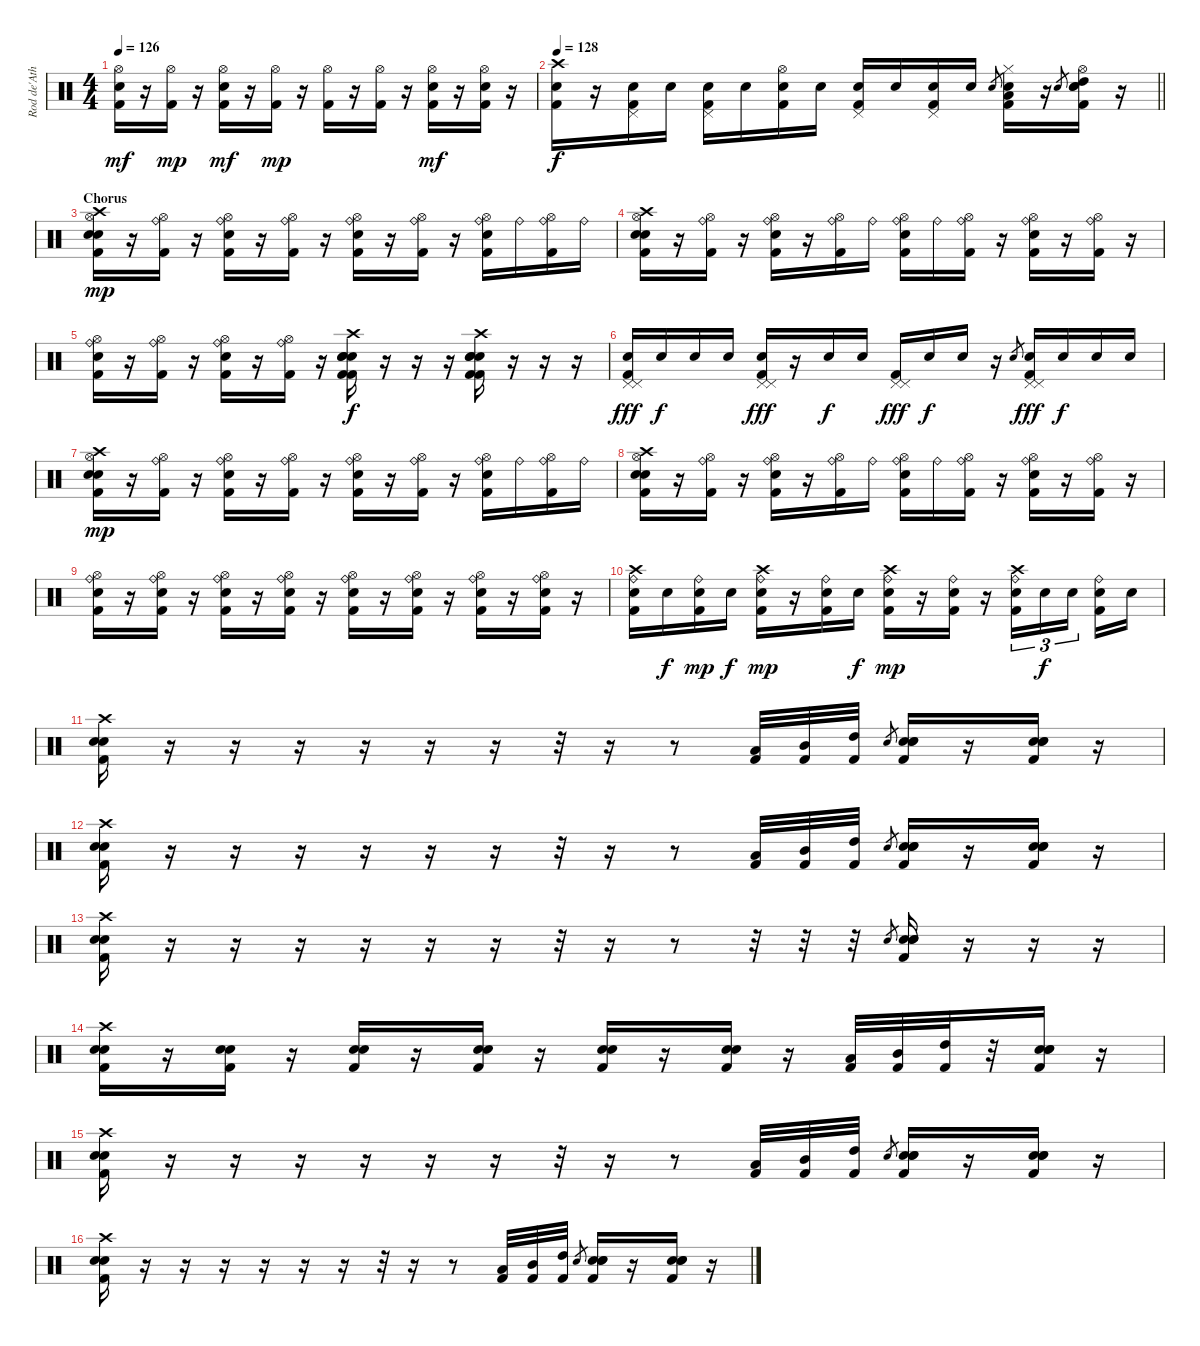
\track ("Rod de'Ath" "Rod de'Ath") {instrument percussion}
\staff {score}
\articulation defaults
\ts (4 4)
\tempo 126
\clef neutral
\ks c
("Hi-Hat (open)" "Snare (hit) 2" "Kick (hit) 2").16{dy mf} r.16 ("Hi-Hat (open)" "Kick (hit) 2").16{dy mp} r.16 ("Hi-Hat (open)" "Snare (hit) 2" "Kick (hit) 2").16{dy mf} r.16 ("Hi-Hat (open)" "Kick (hit) 2").16{dy mp} r.16 ("Hi-Hat (open)" "Kick (hit) 2").16 r.16 ("Hi-Hat (open)" "Kick (hit) 2").16 r.16 ("Hi-Hat (open)" "Snare (hit) 2" "Kick (hit) 2").16{dy mf} r.16 ("Hi-Hat (open)" "Electric Snare (hit)" "Kick (hit) 2").16 r.16 |
\tempo 128
\barLineRight lightlight
("Crash high (hit)" "Electric Snare (hit)" "Kick (hit) 2").16{dy f} r.16 ("Pedal Hi-Hat (hit)" "Electric Snare (hit)" "Kick (hit) 2").16 "Electric Snare (hit)".16 ("Pedal Hi-Hat (hit)" "Electric Snare (hit)" "Kick (hit) 2").16 "Electric Snare (hit)".16 ("Hi-Hat (open)" "Electric Snare (hit)" "Kick (hit) 2").16 "Electric Snare (hit)".16 ("Pedal Hi-Hat (hit)" "Snare (hit) 2" "Kick (hit) 2").16 "Snare (hit) 2".16 ("Pedal Hi-Hat (hit)" "Snare (hit) 2" "Kick (hit) 2").16 "Electric Snare (hit)".16 "Snare (hit) 2".8{gr} ("Hi-Hat (closed)" "Snare (hit) 2" "Low Tom (hit)" "Kick (hit) 2").16 r.16 "Electric Snare (hit)".8{gr} ("Hi-Hat (open)" "Snare (hit) 2" "Electric Snare (hit)" "High Tom (hit)" "Kick (hit) 2").16 r.16 |
\section ("" "Chorus")
("Crash high (hit)" "Hi-Hat (open)" "Snare (hit) 2" "Electric Snare (hit)" "Kick (hit) 2").16{dy mp} r.16 ("Ride (bell)" "Hi-Hat (open)" "Kick (hit) 2").16 r.16 ("Ride (bell)" "Hi-Hat (open)" "Snare (hit) 2" "Kick (hit) 2").16 r.16 ("Ride (bell)" "Hi-Hat (open)" "Kick (hit) 2").16 r.16 ("Ride (bell)" "Hi-Hat (open)" "Snare (hit) 2" "Kick (hit) 2").16 r.16 ("Ride (bell)" "Hi-Hat (open)" "Kick (hit) 2").16 r.16 ("Ride (bell)" "Hi-Hat (open)" "Snare (hit) 2" "Kick (hit) 2").16 "Ride (bell)".16 ("Ride (bell)" "Hi-Hat (open)" "Kick (hit) 2").16 "Ride (bell)".16 |
("Crash high (hit)" "Hi-Hat (open)" "Snare (hit) 2" "Electric Snare (hit)" "Kick (hit) 2").16 r.16 ("Ride (bell)" "Hi-Hat (open)" "Kick (hit) 2").16 r.16 ("Ride (bell)" "Hi-Hat (open)" "Snare (hit) 2" "Kick (hit) 2").16 r.16 ("Ride (bell)" "Hi-Hat (open)" "Kick (hit) 2").16 "Ride (bell)".16 ("Ride (bell)" "Hi-Hat (open)" "Snare (hit) 2" "Kick (hit) 2").16 "Ride (bell)".16 ("Ride (bell)" "Hi-Hat (open)" "Kick (hit) 2").16 r.16 ("Ride (bell)" "Hi-Hat (open)" "Snare (hit) 2" "Kick (hit) 2").16 r.16 ("Ride (bell)" "Hi-Hat (open)" "Kick (hit) 2").16 r.16 |
("Ride (bell)" "Hi-Hat (open)" "Snare (hit) 2" "Kick (hit) 2").16 r.16 ("Ride (bell)" "Hi-Hat (open)" "Kick (hit) 2").16 r.16 ("Ride (bell)" "Hi-Hat (open)" "Snare (hit) 2" "Kick (hit) 2").16 r.16 ("Ride (bell)" "Hi-Hat (open)" "Kick (hit) 2").16 r.16 ("Crash high (hit)" "Electric Snare (hit)" "Electric Snare (hit)" "Electric Snare (hit)" "Kick (hit) 2" "Kick (hit) 2").16{dy f} r.16 r.16 r.16 ("Crash high (hit)" "Electric Snare (hit)" "Electric Snare (hit)" "Snare (hit) 2" "Kick (hit) 2" "Kick (hit) 2").16 r.16 r.16 r.16 |
("Pedal Hi-Hat (hit)" "Snare (hit) 2" "Pedal Hi-Hat (hit)" "Kick (hit) 2").16{dy fff} "Snare (hit) 2".16{dy f} "Snare (hit) 2".16 "Snare (hit) 2".16 ("Pedal Hi-Hat (hit)" "Snare (hit) 2" "Pedal Hi-Hat (hit)" "Kick (hit) 2").16{dy fff} r.16 "Snare (hit) 2".16{dy f} "Snare (hit) 2".16 ("Pedal Hi-Hat (hit)" "Pedal Hi-Hat (hit)" "Kick (hit) 2").16{dy fff} "Snare (hit) 2".16{dy f} "Snare (hit) 2".16 r.16 "Electric Snare (hit)".8{gr} ("Pedal Hi-Hat (hit)" "Snare (hit) 2" "Pedal Hi-Hat (hit)" "Kick (hit) 2").16{dy fff} "Snare (hit) 2".16{dy f} "Snare (hit) 2".16 "Snare (hit) 2".16 |
("Crash high (hit)" "Hi-Hat (open)" "Snare (hit) 2" "Electric Snare (hit)" "Kick (hit) 2").16{dy mp} r.16 ("Ride (bell)" "Hi-Hat (open)" "Kick (hit) 2").16 r.16 ("Ride (bell)" "Hi-Hat (open)" "Snare (hit) 2" "Kick (hit) 2").16 r.16 ("Ride (bell)" "Hi-Hat (open)" "Kick (hit) 2").16 r.16 ("Ride (bell)" "Hi-Hat (open)" "Snare (hit) 2" "Kick (hit) 2").16 r.16 ("Ride (bell)" "Hi-Hat (open)" "Kick (hit) 2").16 r.16 ("Ride (bell)" "Hi-Hat (open)" "Snare (hit) 2" "Kick (hit) 2").16 "Ride (bell)".16 ("Ride (bell)" "Hi-Hat (open)" "Kick (hit) 2").16 "Ride (bell)".16 |
("Crash high (hit)" "Hi-Hat (open)" "Snare (hit) 2" "Electric Snare (hit)" "Kick (hit) 2").16 r.16 ("Ride (bell)" "Hi-Hat (open)" "Kick (hit) 2").16 r.16 ("Ride (bell)" "Hi-Hat (open)" "Snare (hit) 2" "Kick (hit) 2").16 r.16 ("Ride (bell)" "Hi-Hat (open)" "Kick (hit) 2").16 "Ride (bell)".16 ("Ride (bell)" "Hi-Hat (open)" "Snare (hit) 2" "Kick (hit) 2").16 "Ride (bell)".16 ("Ride (bell)" "Hi-Hat (open)" "Kick (hit) 2").16 r.16 ("Ride (bell)" "Hi-Hat (open)" "Snare (hit) 2" "Kick (hit) 2").16 r.16 ("Ride (bell)" "Hi-Hat (open)" "Kick (hit) 2").16 r.16 |
("Ride (bell)" "Hi-Hat (open)" "Snare (hit) 2" "Kick (hit) 2").16 r.16 ("Ride (bell)" "Hi-Hat (open)" "Snare (hit) 2" "Kick (hit) 2").16 r.16 ("Ride (bell)" "Hi-Hat (open)" "Snare (hit) 2" "Kick (hit) 2").16 r.16 ("Ride (bell)" "Hi-Hat (open)" "Snare (hit) 2" "Kick (hit) 2").16 r.16 ("Ride (bell)" "Hi-Hat (open)" "Snare (hit) 2" "Kick (hit) 2").16 r.16 ("Ride (bell)" "Hi-Hat (open)" "Snare (hit) 2" "Kick (hit) 2").16 r.16 ("Ride (bell)" "Hi-Hat (open)" "Snare (hit) 2" "Kick (hit) 2").16 r.16 ("Ride (bell)" "Hi-Hat (open)" "Snare (hit) 2" "Kick (hit) 2").16 r.16 |
("Ride (bell)" "Crash high (hit)" "Electric Snare (hit)" "Kick (hit) 2").16 "Electric Snare (hit)".16{dy f} ("Ride (bell)" "Electric Snare (hit)" "Kick (hit) 2").16{dy mp} "Electric Snare (hit)".16{dy f} ("Ride (bell)" "Crash high (hit)" "Electric Snare (hit)" "Kick (hit) 2").16{dy mp} r.16 ("Ride (bell)" "Electric Snare (hit)" "Kick (hit) 2").16 "Electric Snare (hit)".16{dy f} ("Ride (bell)" "Crash high (hit)" "Electric Snare (hit)" "Kick (hit) 2").16{dy mp} r.16 ("Ride (bell)" "Electric Snare (hit)" "Kick (hit) 2").16 r.16 ("Ride (bell)" "Crash high (hit)" "Electric Snare (hit)" "Kick (hit) 2").16{tu (3 2)} "Electric Snare (hit)".16{tu (3 2) dy f} "Electric Snare (hit)".16{tu (3 2)} ("Ride (bell)" "Electric Snare (hit)" "Kick (hit) 2").16 "Electric Snare (hit)".16 |
("Crash high (hit)" "Snare (hit) 2" "Snare (hit) 2" "Kick (hit) 2").16 r.16 r.16 r.16 r.16 r.16 r.16 r.32 r.16 r.8 ("Low Tom (hit)" "Kick (hit) 2").32 ("Mid Tom (hit)" "Kick (hit) 2").32 ("High Tom (hit)" "Kick (hit) 2").32 "Snare (hit) 2".8{gr} ("Electric Snare (hit)" "Electric Snare (hit)" "Electric Snare (hit)" "Kick (hit) 2").16 r.16 ("Electric Snare (hit)" "Electric Snare (hit)" "Electric Snare (hit)" "Kick (hit) 2").16 r.16 |
("Crash high (hit)" "Snare (hit) 2" "Snare (hit) 2" "Kick (hit) 2").16 r.16 r.16 r.16 r.16 r.16 r.16 r.32 r.16 r.8 ("Low Tom (hit)" "Kick (hit) 2").32 ("Mid Tom (hit)" "Kick (hit) 2").32 ("High Tom (hit)" "Kick (hit) 2").32 "Snare (hit) 2".8{gr} ("Electric Snare (hit)" "Electric Snare (hit)" "Electric Snare (hit)" "Kick (hit) 2").16 r.16 ("Electric Snare (hit)" "Electric Snare (hit)" "Electric Snare (hit)" "Kick (hit) 2").16 r.16 |
("Crash high (hit)" "Snare (hit) 2" "Snare (hit) 2" "Kick (hit) 2").16 r.16 r.16 r.16 r.16 r.16 r.16 r.32 r.16 r.8 r.32 r.32 r.32 "Electric Snare (hit)".8{gr} ("Electric Snare (hit)" "Electric Snare (hit)" "Electric Snare (hit)" "Kick (hit) 2").16 r.16 r.16 r.16 |
("Crash high (hit)" "Electric Snare (hit)" "Electric Snare (hit)" "Kick (hit) 2").16 r.16 ("Electric Snare (hit)" "Electric Snare (hit)" "Kick (hit) 2").16 r.16 ("Electric Snare (hit)" "Electric Snare (hit)" "Kick (hit) 2").16 r.16 ("Electric Snare (hit)" "Electric Snare (hit)" "Kick (hit) 2").16 r.16 ("Electric Snare (hit)" "Electric Snare (hit)" "Kick (hit) 2").16 r.16 ("Electric Snare (hit)" "Electric Snare (hit)" "Kick (hit) 2").16 r.16 ("Low Tom (hit)" "Kick (hit) 2").32 ("Mid Tom (hit)" "Kick (hit) 2").32 ("High Tom (hit)" "Kick (hit) 2").32 r.32 ("Electric Snare (hit)" "Electric Snare (hit)" "Electric Snare (hit)" "Kick (hit) 2").16 r.16 |
("Crash high (hit)" "Snare (hit) 2" "Snare (hit) 2" "Kick (hit) 2").16 r.16 r.16 r.16 r.16 r.16 r.16 r.32 r.16 r.8 ("Low Tom (hit)" "Kick (hit) 2").32 ("Mid Tom (hit)" "Kick (hit) 2").32 ("High Tom (hit)" "Kick (hit) 2").32 "Snare (hit) 2".8{gr} ("Electric Snare (hit)" "Electric Snare (hit)" "Electric Snare (hit)" "Kick (hit) 2").16 r.16 ("Electric Snare (hit)" "Electric Snare (hit)" "Electric Snare (hit)" "Kick (hit) 2").16 r.16 |
("Crash high (hit)" "Snare (hit) 2" "Snare (hit) 2" "Kick (hit) 2").16 r.16 r.16 r.16 r.16 r.16 r.16 r.32 r.16 r.8 ("Low Tom (hit)" "Kick (hit) 2").32 ("Mid Tom (hit)" "Kick (hit) 2").32 ("High Tom (hit)" "Kick (hit) 2").32 "Snare (hit) 2".8{gr} ("Electric Snare (hit)" "Electric Snare (hit)" "Electric Snare (hit)" "Kick (hit) 2").16 r.16 ("Electric Snare (hit)" "Electric Snare (hit)" "Electric Snare (hit)" "Kick (hit) 2").16 r.16
